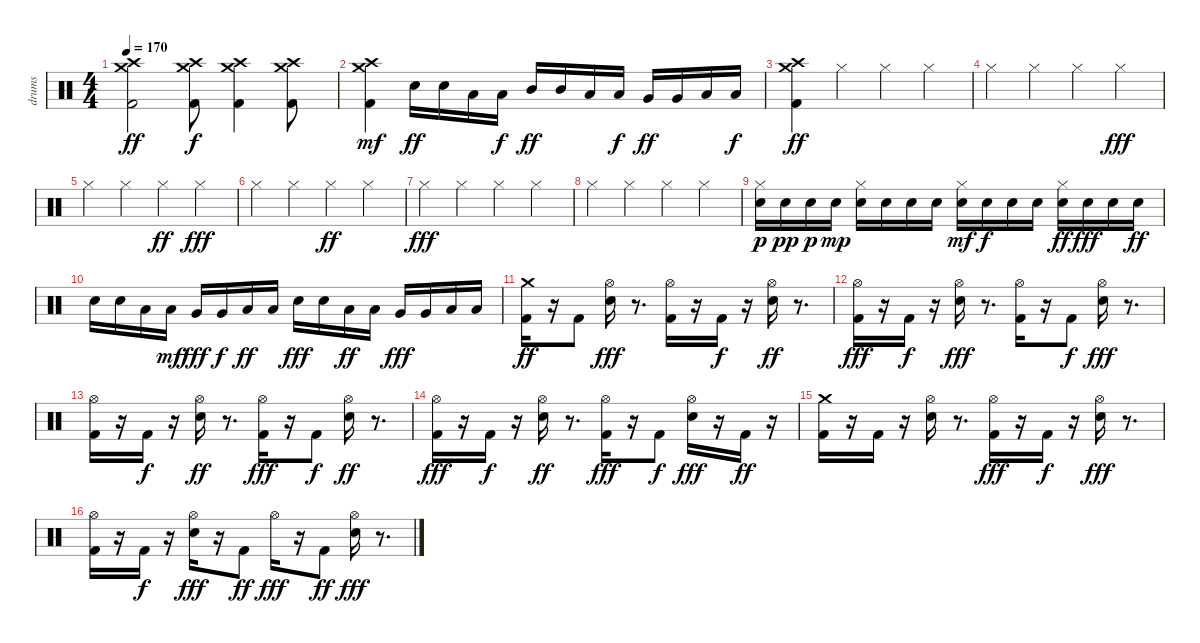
\track ("drums" "drums") {instrument percussion}
\staff {score}
\articulation defaults
\ts (4 4)
\tempo 170
\clef neutral
\ks c
("Crash high (hit)" "Kick (hit) 2" "Crash medium (hit)").2{dy ff} ("Kick (hit) 2" "Crash high (hit)" "Crash medium (hit)").8{dy f} ("Crash high (hit)" "Kick (hit) 2" "Crash medium (hit)").4 ("Kick (hit) 2" "Crash high (hit)" "Crash medium (hit)").8 |
("Crash high (hit)" "Kick (hit) 2" "Crash medium (hit)").4{dy mf} "Snare (hit) 2".16{dy ff} "Snare (hit) 2".16 "Low Floor Tom (hit)".16 "Low Floor Tom (hit)".16{dy f} "Mid Tom (hit)".16{dy ff} "Mid Tom (hit)".16 "Low Floor Tom (hit)".16 "Low Floor Tom (hit)".16{dy f} "Very Low Tom (hit)".16{dy ff} "Very Low Tom (hit)".16 "Low Floor Tom (hit)".16 "Low Floor Tom (hit)".16{dy f} |
("Kick (hit) 2" "Crash high (hit)" "Crash medium (hit)").4{dy ff} "Hi-Hat (closed)".4 "Hi-Hat (closed)".4 "Hi-Hat (closed)".4 |
"Hi-Hat (closed)".4 "Hi-Hat (closed)".4 "Hi-Hat (closed)".4 "Hi-Hat (closed)".4{dy fff} |
"Hi-Hat (closed)".4 "Hi-Hat (closed)".4 "Hi-Hat (closed)".4{dy ff} "Hi-Hat (closed)".4{dy fff} |
"Hi-Hat (closed)".4 "Hi-Hat (closed)".4 "Hi-Hat (closed)".4{dy ff} "Hi-Hat (closed)".4 |
"Hi-Hat (closed)".4{dy fff} "Hi-Hat (closed)".4 "Hi-Hat (closed)".4 "Hi-Hat (closed)".4 |
"Hi-Hat (closed)".4 "Hi-Hat (closed)".4 "Hi-Hat (closed)".4 "Hi-Hat (closed)".4 |
("Hi-Hat (closed)" "Snare (hit) 2").16{dy p} "Snare (hit) 2".16{dy pp} "Snare (hit) 2".16{dy p} "Snare (hit) 2".16{dy mp} ("Hi-Hat (closed)" "Snare (hit) 2").16 "Snare (hit) 2".16 "Snare (hit) 2".16 "Snare (hit) 2".16 ("Hi-Hat (closed)" "Snare (hit) 2").16{dy mf} "Snare (hit) 2".16{dy f} "Snare (hit) 2".16 "Snare (hit) 2".16 ("Hi-Hat (closed)" "Snare (hit) 2").16{dy ff} "Snare (hit) 2".16{dy fff} "Snare (hit) 2".16 "Snare (hit) 2".16{dy ff} |
"Snare (hit) 2".16 "Snare (hit) 2".16 "Low Floor Tom (hit)".16 "Low Floor Tom (hit)".16{dy mf} "Very Low Tom (hit)".16{dy fff} "Very Low Tom (hit)".16{dy f} "Low Floor Tom (hit)".16{dy ff} "Low Floor Tom (hit)".16 "Snare (hit) 2".16{dy fff} "Snare (hit) 2".16 "Low Tom (hit)".16{dy ff} "Low Tom (hit)".16 "Very Low Tom (hit)".16{dy fff} "Very Low Tom (hit)".16 "Low Floor Tom (hit)".16 "Low Floor Tom (hit)".16 |
("Kick (hit) 2" "Crash medium (hit)").16{dy ff} r.16 "Kick (hit) 2".8 ("Hi-Hat (open)" "Snare (hit) 2").16{dy fff} r.8{d} ("Kick (hit) 2" "Hi-Hat (open)").16 r.16 "Kick (hit) 2".16{dy f} r.16 ("Hi-Hat (open)" "Snare (hit) 2").16{dy ff} r.8{d} |
("Hi-Hat (open)" "Kick (hit) 2").16{dy fff} r.16 "Kick (hit) 2".16{dy f} r.16 ("Snare (hit) 2" "Hi-Hat (open)").16{dy fff} r.8{d} ("Kick (hit) 2" "Hi-Hat (open)").16 r.16 "Kick (hit) 2".8{dy f} ("Snare (hit) 2" "Hi-Hat (open)").16{dy fff} r.8{d} |
("Kick (hit) 2" "Hi-Hat (open)").16 r.16 "Kick (hit) 2".16{dy f} r.16 ("Hi-Hat (open)" "Snare (hit) 2").16{dy ff} r.8{d} ("Kick (hit) 2" "Hi-Hat (open)").16{dy fff} r.16 "Kick (hit) 2".8{dy f} ("Hi-Hat (open)" "Snare (hit) 2").16{dy ff} r.8{d} |
("Kick (hit) 2" "Hi-Hat (open)").16{dy fff} r.16 "Kick (hit) 2".16{dy f} r.16 ("Hi-Hat (open)" "Snare (hit) 2").16{dy ff} r.8{d} ("Kick (hit) 2" "Hi-Hat (open)").16{dy fff} r.16 "Kick (hit) 2".8{dy f} ("Snare (hit) 2" "Hi-Hat (open)").16{dy fff} r.16 "Kick (hit) 2".16{dy ff} r.16 |
("Crash medium (hit)" "Kick (hit) 2").16 r.16 "Kick (hit) 2".16 r.16 ("Snare (hit) 2" "Hi-Hat (open)").16 r.8{d} ("Kick (hit) 2" "Hi-Hat (open)").16{dy fff} r.16 "Kick (hit) 2".16{dy f} r.16 ("Snare (hit) 2" "Hi-Hat (open)").16{dy fff} r.8{d} |
("Kick (hit) 2" "Hi-Hat (open)").16 r.16 "Kick (hit) 2".16{dy f} r.16 ("Snare (hit) 2" "Hi-Hat (open)").16{dy fff} r.16 "Kick (hit) 2".8{dy ff} "Hi-Hat (open)".16{dy fff} r.16 "Kick (hit) 2".8{dy ff} ("Snare (hit) 2" "Hi-Hat (open)").16{dy fff} r.8{d}
